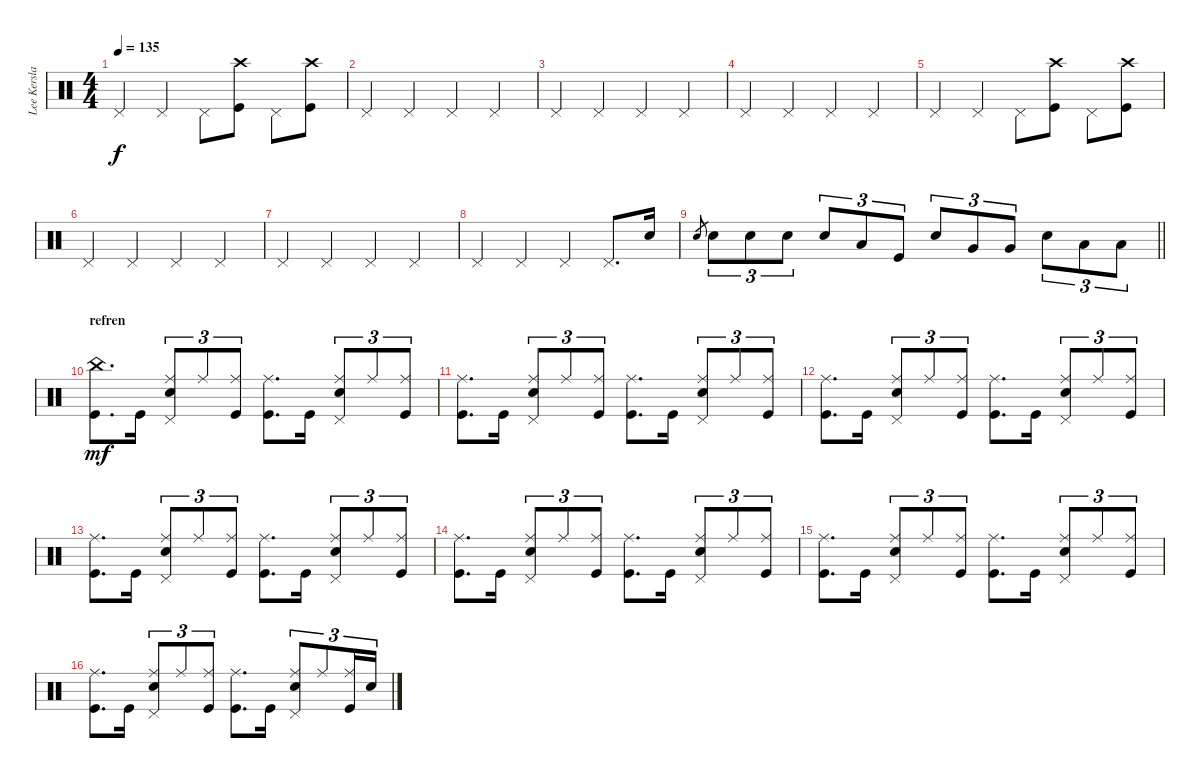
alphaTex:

\track ("Lee Kerslake (drums)" "Lee Kersla") {instrument percussion}
\staff {score}
\articulation defaults
\ts (4 4)
\tempo 135
\clef neutral
\ks c "Pedal Hi-Hat (hit)".4{dy f} "Pedal Hi-Hat (hit)".4 "Pedal Hi-Hat (hit)".8
("Crash high (hit)" "Kick (hit)").8 "Pedal Hi-Hat (hit)".8 ("Crash high (hit)" "Kick (hit)").8 |
"Pedal Hi-Hat (hit)".4 "Pedal Hi-Hat (hit)".4 "Pedal Hi-Hat (hit)".4 "Pedal Hi-Hat (hit)".4 |
"Pedal Hi-Hat (hit)".4 "Pedal Hi-Hat (hit)".4 "Pedal Hi-Hat (hit)".4 "Pedal Hi-Hat (hit)".4 |
"Pedal Hi-Hat (hit)".4 "Pedal Hi-Hat (hit)".4 "Pedal Hi-Hat (hit)".4 "Pedal Hi-Hat (hit)".4 |
"Pedal Hi-Hat (hit)".4 "Pedal Hi-Hat (hit)".4 "Pedal Hi-Hat (hit)".8 ("Crash high (hit)" "Kick (hit)").8 "Pedal Hi-Hat (hit)".8 ("Crash high (hit)" "Kick (hit)").8 |
"Pedal Hi-Hat (hit)".4 "Pedal Hi-Hat (hit)".4 "Pedal Hi-Hat (hit)".4 "Pedal Hi-Hat (hit)".4 |
"Pedal Hi-Hat (hit)".4 "Pedal Hi-Hat (hit)".4 "Pedal Hi-Hat (hit)".4 "Pedal Hi-Hat (hit)".4 |
"Pedal Hi-Hat (hit)".4 "Pedal Hi-Hat (hit)".4 "Pedal Hi-Hat (hit)".4 "Pedal Hi-Hat (hit)".8{d} "Snare (hit) 2".16 |
\barLineRight lightlight "Snare (hit) 2".8{gr} "Snare (hit) 2".8{tu (3 2)} "Snare (hit) 2".8{tu (3 2)} "Snare (hit) 2".8{tu (3 2)} "Snare (hit) 2".8{tu (3 2)} "Low Floor Tom (hit)".8{tu (3 2)} "Kick (hit)".8{tu (3 2)} "Snare (hit) 2".8{tu (3 2)} "Very Low Tom (hit)".8{tu (3 2)} "Very Low Tom (hit)".8{tu (3 2)} "Snare (hit) 2".8{tu (3 2)} "Low Floor Tom (hit)".8{tu (3 2)} "Low Floor Tom (hit)".8{tu (3 2)}
|
\section ("" "refren")
("China (hit)" "Kick (hit)").8{d dy mf} "Kick (hit)".16 ("Ride (middle)" "Pedal Hi-Hat (hit)" "Snare (hit) 2").8{tu (3 2)} "Ride (middle)".8{tu (3 2)} ("Ride (middle)" "Kick (hit)").8{tu (3 2)} ("Ride (middle)" "Kick (hit)").8{d} "Kick (hit)".16 ("Ride (middle)" "Pedal Hi-Hat (hit)" "Snare (hit) 2").8{tu (3 2)} "Ride (middle)".8{tu (3 2)} ("Ride (middle)" "Kick (hit)").8{tu (3 2)} |
("Ride (middle)" "Kick (hit)").8{d} "Kick (hit)".16 ("Ride (middle)" "Pedal Hi-Hat (hit)" "Snare (hit) 2").8{tu (3 2)} "Ride (middle)".8{tu (3 2)} ("Ride (middle)" "Kick (hit)").8{tu (3 2)} ("Ride (middle)" "Kick (hit)").8{d} "Kick (hit)".16 ("Ride (middle)" "Pedal Hi-Hat (hit)" "Snare (hit) 2").8{tu (3 2)} "Ride (middle)".8{tu (3 2)} ("Ride (middle)" "Kick (hit)").8{tu (3 2)} |
("Ride (middle)" "Kick (hit)").8{d} "Kick (hit)".16 ("Ride (middle)" "Pedal Hi-Hat (hit)" "Snare (hit) 2").8{tu (3 2)} "Ride (middle)".8{tu (3 2)} ("Ride (middle)" "Kick (hit)").8{tu (3 2)} ("Ride (middle)" "Kick (hit)").8{d} "Kick (hit)".16 ("Ride (middle)" "Pedal Hi-Hat (hit)" "Snare (hit) 2").8{tu (3 2)} "Ride (middle)".8{tu (3 2)} ("Ride (middle)" "Kick (hit)").8{tu (3 2)} |
("Ride (middle)" "Kick (hit)").8{d} "Kick (hit)".16 ("Ride (middle)" "Pedal Hi-Hat (hit)" "Snare (hit) 2").8{tu (3 2)} "Ride (middle)".8{tu (3 2)} ("Ride (middle)" "Kick (hit)").8{tu (3 2)} ("Ride (middle)" "Kick (hit)").8{d} "Kick (hit)".16 ("Ride (middle)" "Pedal Hi-Hat (hit)" "Snare (hit) 2").8{tu (3 2)} "Ride (middle)".8{tu (3 2)} ("Ride (middle)" "Kick (hit)").8{tu (3 2)} |
("Ride (middle)" "Kick (hit)").8{d} "Kick (hit)".16 ("Ride (middle)" "Pedal Hi-Hat (hit)" "Snare (hit) 2").8{tu (3 2)} "Ride (middle)".8{tu (3 2)} ("Ride (middle)" "Kick (hit)").8{tu (3 2)} ("Ride (middle)" "Kick (hit)").8{d} "Kick (hit)".16 ("Ride (middle)" "Pedal Hi-Hat (hit)" "Snare (hit) 2").8{tu (3 2)} "Ride (middle)".8{tu (3 2)} ("Ride (middle)" "Kick (hit)").8{tu (3 2)} |
("Ride (middle)" "Kick (hit)").8{d} "Kick (hit)".16 ("Ride (middle)" "Pedal Hi-Hat (hit)" "Snare (hit) 2").8{tu (3 2)} "Ride (middle)".8{tu (3 2)} ("Ride (middle)" "Kick (hit)").8{tu (3 2)} ("Ride (middle)" "Kick (hit)").8{d} "Kick (hit)".16 ("Ride (middle)" "Pedal Hi-Hat (hit)" "Snare (hit) 2").8{tu (3 2)} "Ride (middle)".8{tu (3 2)} ("Ride (middle)" "Kick (hit)").8{tu (3 2)} |
("Ride (middle)" "Kick (hit)").8{d} "Kick (hit)".16 ("Ride (middle)" "Pedal Hi-Hat (hit)" "Snare (hit) 2").8{tu (3 2)} "Ride (middle)".8{tu (3 2)} ("Ride (middle)" "Kick (hit)").8{tu (3 2)} ("Ride (middle)" "Kick (hit)").8{d} "Kick (hit)".16 ("Ride (middle)" "Pedal Hi-Hat (hit)" "Snare (hit) 2").8{tu (3 2)} "Ride (middle)".8{tu (3 2)} ("Ride (middle)" "Kick (hit)").16{tu (3 2)} "Snare (hit) 2".16{tu (3 2)}
